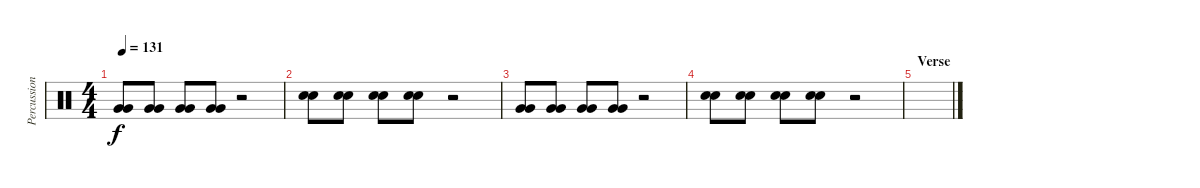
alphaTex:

\track ("Percussion" "Percussion") {instrument percussion}
\staff {score}
\articulation defaults
\ts (4 4)
\tempo 131
\clef neutral
\ks c
("Very Low Tom (hit)" "Very Low Tom (hit)").8{dy f} ("Very Low Tom (hit)" "Very Low Tom (hit)").8 ("Very Low Tom (hit)" "Very Low Tom (hit)").8 ("Very Low Tom (hit)" "Very Low Tom (hit)").8 r.2 |
("Snare (hit) 2" "Snare (hit) 2").8 ("Snare (hit) 2" "Snare (hit) 2").8 ("Snare (hit) 2" "Snare (hit) 2").8 ("Snare (hit) 2" "Snare (hit) 2").8 r.2 |
("Very Low Tom (hit)" "Very Low Tom (hit)").8 ("Very Low Tom (hit)" "Very Low Tom (hit)").8 ("Very Low Tom (hit)" "Very Low Tom (hit)").8 ("Very Low Tom (hit)" "Very Low Tom (hit)").8 r.2 |
("Snare (hit) 2" "Snare (hit) 2").8 ("Snare (hit) 2" "Snare (hit) 2").8 ("Snare (hit) 2" "Snare (hit) 2").8 ("Snare (hit) 2" "Snare (hit) 2").8 r.2 |
\section ("" "Verse")
